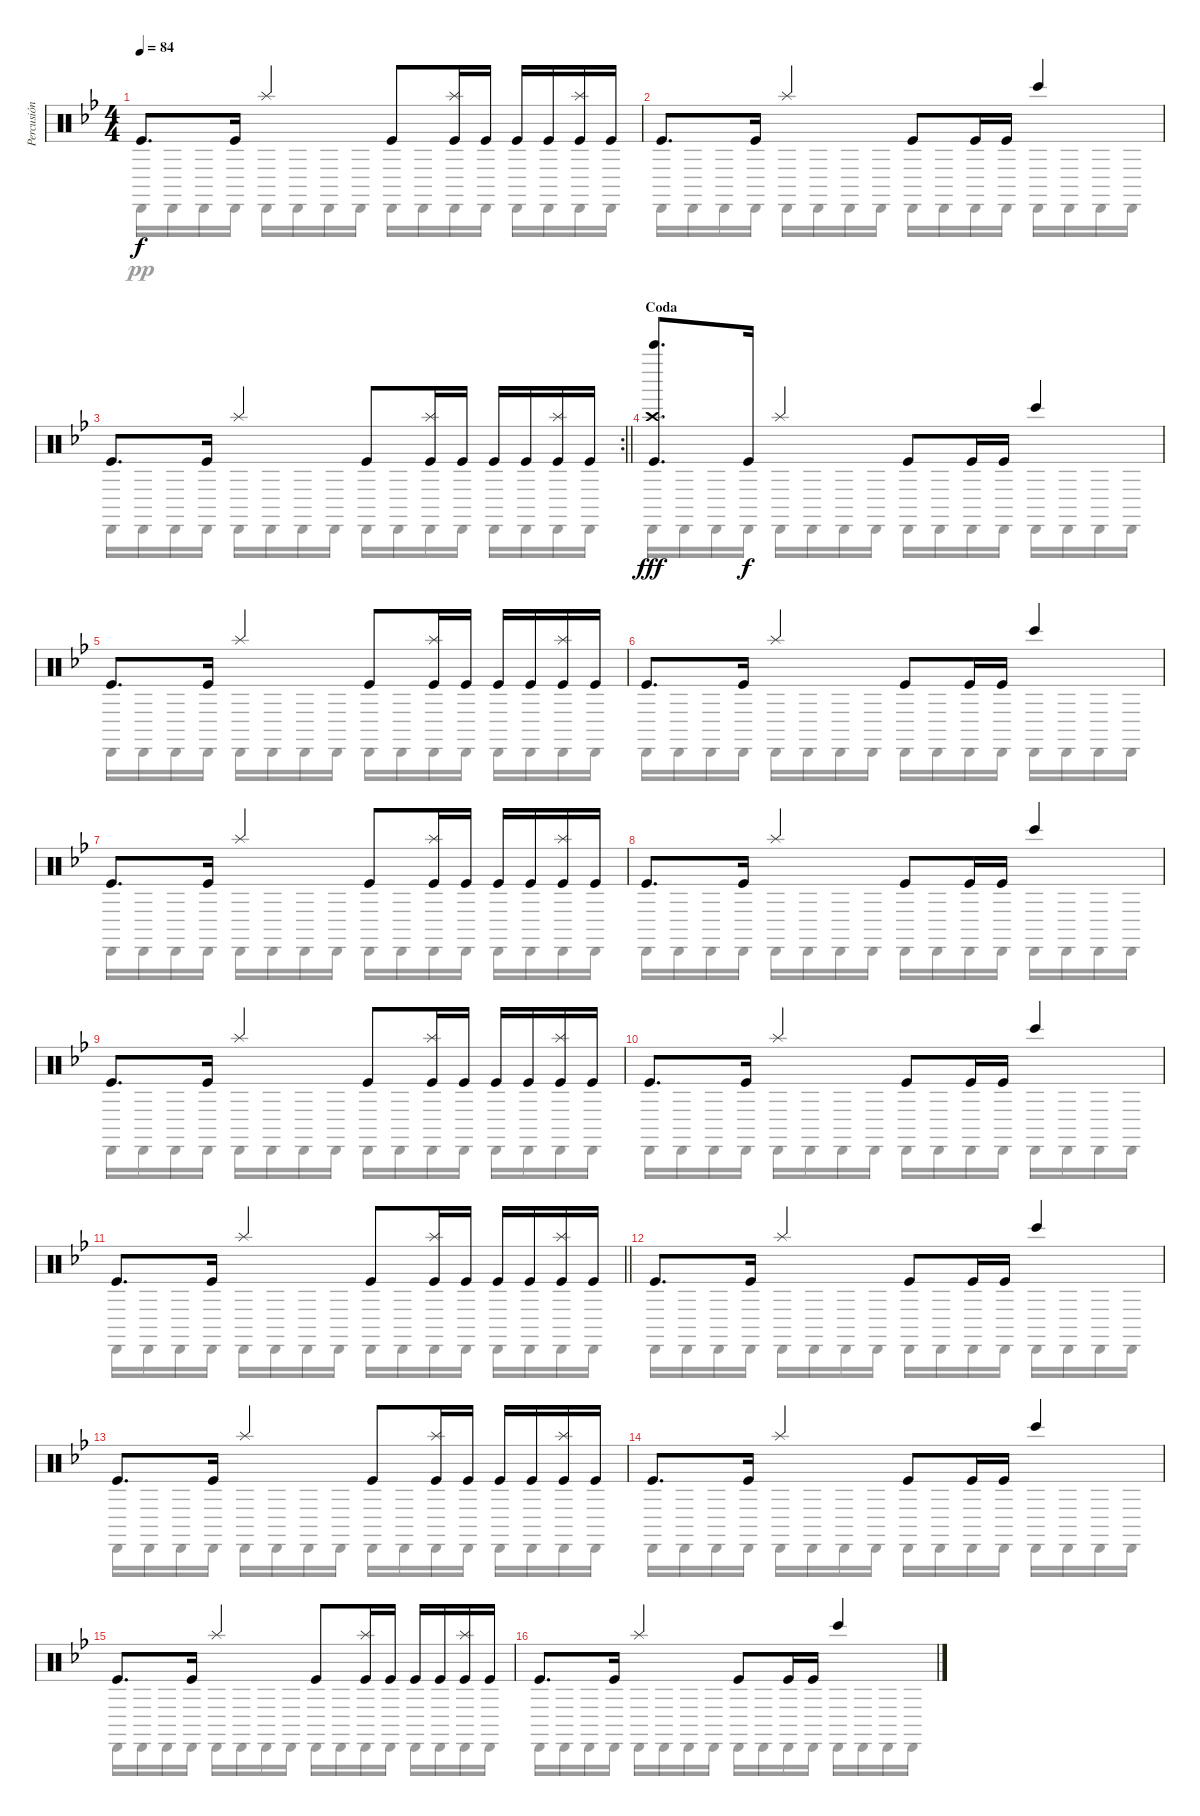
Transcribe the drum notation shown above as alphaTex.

\track ("Percusión" "Percusión") {instrument percussion}
\staff {score}
\articulation defaults
\voice
\ts (4 4)
\tempo 84
\clef neutral
\ks bb "Kick (hit)".8{d dy f} "Kick (hit)".16 "Splash (hit)".4 "Kick (hit)".8
("Splash (hit)" "Kick (hit)").16 "Kick (hit)".16 "Kick (hit)".16 "Kick (hit)".16 ("Splash (hit)" "Kick (hit)").16 "Kick (hit)".16 |
"Kick (hit)".8{d} "Kick (hit)".16 "Splash (hit)".4 "Kick (hit)".8 "Kick (hit)".16 "Kick (hit)".16 "Bongo High (hit)".4 |
\rc 2
\barLineRight lightlight "Kick (hit)".8{d} "Kick (hit)".16 "Splash (hit)".4 "Kick (hit)".8
("Splash (hit)" "Kick (hit)").16 "Kick (hit)".16 "Kick (hit)".16 "Kick (hit)".16 ("Splash (hit)" "Kick (hit)").16 "Kick (hit)".16 |
\section ("" "Coda")
("Bell Tree (hit)" "Crash high (hit)" "Kick (hit)").8{d dy fff} "Kick (hit)".16{dy f} "Splash (hit)".4 "Kick (hit)".8 "Kick (hit)".16 "Kick (hit)".16 "Bongo High (hit)".4 |
"Kick (hit)".8{d} "Kick (hit)".16 "Splash (hit)".4 "Kick (hit)".8 ("Splash (hit)" "Kick (hit)").16 "Kick (hit)".16 "Kick (hit)".16 "Kick (hit)".16 ("Splash (hit)" "Kick (hit)").16 "Kick (hit)".16 |
"Kick (hit)".8{d} "Kick (hit)".16 "Splash (hit)".4 "Kick (hit)".8 "Kick (hit)".16 "Kick (hit)".16 "Bongo High (hit)".4 |
"Kick (hit)".8{d} "Kick (hit)".16 "Splash (hit)".4 "Kick (hit)".8 ("Splash (hit)" "Kick (hit)").16 "Kick (hit)".16 "Kick (hit)".16 "Kick (hit)".16 ("Splash (hit)" "Kick (hit)").16 "Kick (hit)".16 |
"Kick (hit)".8{d} "Kick (hit)".16 "Splash (hit)".4 "Kick (hit)".8 "Kick (hit)".16 "Kick (hit)".16 "Bongo High (hit)".4 |
"Kick (hit)".8{d} "Kick (hit)".16 "Splash (hit)".4 "Kick (hit)".8 ("Splash (hit)" "Kick (hit)").16 "Kick (hit)".16 "Kick (hit)".16 "Kick (hit)".16 ("Splash (hit)" "Kick (hit)").16 "Kick (hit)".16 |
"Kick (hit)".8{d} "Kick (hit)".16 "Splash (hit)".4 "Kick (hit)".8 "Kick (hit)".16 "Kick (hit)".16 "Bongo High (hit)".4 |
\barLineRight lightlight "Kick (hit)".8{d} "Kick (hit)".16 "Splash (hit)".4 "Kick (hit)".8
("Splash (hit)" "Kick (hit)").16 "Kick (hit)".16 "Kick (hit)".16 "Kick (hit)".16 ("Splash (hit)" "Kick (hit)").16 "Kick (hit)".16 |
"Kick (hit)".8{d} "Kick (hit)".16 "Splash (hit)".4 "Kick (hit)".8 "Kick (hit)".16 "Kick (hit)".16 "Bongo High (hit)".4 |
"Kick (hit)".8{d} "Kick (hit)".16 "Splash (hit)".4 "Kick (hit)".8 ("Splash (hit)" "Kick (hit)").16 "Kick (hit)".16 "Kick (hit)".16 "Kick (hit)".16 ("Splash (hit)" "Kick (hit)").16 "Kick (hit)".16 |
"Kick (hit)".8{d} "Kick (hit)".16 "Splash (hit)".4 "Kick (hit)".8 "Kick (hit)".16 "Kick (hit)".16 "Bongo High (hit)".4 |
"Kick (hit)".8{d} "Kick (hit)".16 "Splash (hit)".4 "Kick (hit)".8 ("Splash (hit)" "Kick (hit)").16 "Kick (hit)".16 "Kick (hit)".16 "Kick (hit)".16 ("Splash (hit)" "Kick (hit)").16 "Kick (hit)".16 |
"Kick (hit)".8{d} "Kick (hit)".16 "Splash (hit)".4 "Kick (hit)".8 "Kick (hit)".16 "Kick (hit)".16 "Bongo High (hit)".4
\voice
\clef neutral
\ottava regular
\simile none
\ks bb "Cabasa (hit)".16{dy pp} "Cabasa (hit)".16 "Cabasa (hit)".16 "Cabasa (hit)".16 "Cabasa (hit)".16 "Cabasa (hit)".16 "Cabasa (hit)".16 "Cabasa (hit)".16 "Cabasa (hit)".16 "Cabasa (hit)".16 "Cabasa (hit)".16 "Cabasa (hit)".16 "Cabasa (hit)".16 "Cabasa (hit)".16 "Cabasa (hit)".16 "Cabasa (hit)".16
|
"Cabasa (hit)".16 "Cabasa (hit)".16 "Cabasa (hit)".16 "Cabasa (hit)".16 "Cabasa (hit)".16 "Cabasa (hit)".16 "Cabasa (hit)".16 "Cabasa (hit)".16 "Cabasa (hit)".16 "Cabasa (hit)".16 "Cabasa (hit)".16 "Cabasa (hit)".16 "Cabasa (hit)".16 "Cabasa (hit)".16 "Cabasa (hit)".16 "Cabasa (hit)".16 |
\barLineRight lightlight "Cabasa (hit)".16 "Cabasa (hit)".16 "Cabasa (hit)".16 "Cabasa (hit)".16 "Cabasa (hit)".16 "Cabasa (hit)".16 "Cabasa (hit)".16 "Cabasa (hit)".16 "Cabasa (hit)".16 "Cabasa (hit)".16 "Cabasa (hit)".16 "Cabasa (hit)".16 "Cabasa (hit)".16 "Cabasa (hit)".16 "Cabasa (hit)".16 "Cabasa (hit)".16
|
"Cabasa (hit)".16 "Cabasa (hit)".16 "Cabasa (hit)".16 "Cabasa (hit)".16 "Cabasa (hit)".16 "Cabasa (hit)".16 "Cabasa (hit)".16 "Cabasa (hit)".16 "Cabasa (hit)".16 "Cabasa (hit)".16 "Cabasa (hit)".16 "Cabasa (hit)".16 "Cabasa (hit)".16 "Cabasa (hit)".16 "Cabasa (hit)".16 "Cabasa (hit)".16 |
"Cabasa (hit)".16 "Cabasa (hit)".16 "Cabasa (hit)".16 "Cabasa (hit)".16 "Cabasa (hit)".16 "Cabasa (hit)".16 "Cabasa (hit)".16 "Cabasa (hit)".16 "Cabasa (hit)".16 "Cabasa (hit)".16 "Cabasa (hit)".16 "Cabasa (hit)".16 "Cabasa (hit)".16 "Cabasa (hit)".16 "Cabasa (hit)".16 "Cabasa (hit)".16 |
"Cabasa (hit)".16 "Cabasa (hit)".16 "Cabasa (hit)".16 "Cabasa (hit)".16 "Cabasa (hit)".16 "Cabasa (hit)".16 "Cabasa (hit)".16 "Cabasa (hit)".16 "Cabasa (hit)".16 "Cabasa (hit)".16 "Cabasa (hit)".16 "Cabasa (hit)".16 "Cabasa (hit)".16 "Cabasa (hit)".16 "Cabasa (hit)".16 "Cabasa (hit)".16 |
"Cabasa (hit)".16 "Cabasa (hit)".16 "Cabasa (hit)".16 "Cabasa (hit)".16 "Cabasa (hit)".16 "Cabasa (hit)".16 "Cabasa (hit)".16 "Cabasa (hit)".16 "Cabasa (hit)".16 "Cabasa (hit)".16 "Cabasa (hit)".16 "Cabasa (hit)".16 "Cabasa (hit)".16 "Cabasa (hit)".16 "Cabasa (hit)".16 "Cabasa (hit)".16 |
"Cabasa (hit)".16 "Cabasa (hit)".16 "Cabasa (hit)".16 "Cabasa (hit)".16 "Cabasa (hit)".16 "Cabasa (hit)".16 "Cabasa (hit)".16 "Cabasa (hit)".16 "Cabasa (hit)".16 "Cabasa (hit)".16 "Cabasa (hit)".16 "Cabasa (hit)".16 "Cabasa (hit)".16 "Cabasa (hit)".16 "Cabasa (hit)".16 "Cabasa (hit)".16 |
"Cabasa (hit)".16 "Cabasa (hit)".16 "Cabasa (hit)".16 "Cabasa (hit)".16 "Cabasa (hit)".16 "Cabasa (hit)".16 "Cabasa (hit)".16 "Cabasa (hit)".16 "Cabasa (hit)".16 "Cabasa (hit)".16 "Cabasa (hit)".16 "Cabasa (hit)".16 "Cabasa (hit)".16 "Cabasa (hit)".16 "Cabasa (hit)".16 "Cabasa (hit)".16 |
"Cabasa (hit)".16 "Cabasa (hit)".16 "Cabasa (hit)".16 "Cabasa (hit)".16 "Cabasa (hit)".16 "Cabasa (hit)".16 "Cabasa (hit)".16 "Cabasa (hit)".16 "Cabasa (hit)".16 "Cabasa (hit)".16 "Cabasa (hit)".16 "Cabasa (hit)".16 "Cabasa (hit)".16 "Cabasa (hit)".16 "Cabasa (hit)".16 "Cabasa (hit)".16 |
\barLineRight lightlight "Cabasa (hit)".16 "Cabasa (hit)".16 "Cabasa (hit)".16 "Cabasa (hit)".16 "Cabasa (hit)".16 "Cabasa (hit)".16 "Cabasa (hit)".16 "Cabasa (hit)".16 "Cabasa (hit)".16 "Cabasa (hit)".16 "Cabasa (hit)".16 "Cabasa (hit)".16 "Cabasa (hit)".16 "Cabasa (hit)".16 "Cabasa (hit)".16 "Cabasa (hit)".16
|
"Cabasa (hit)".16 "Cabasa (hit)".16 "Cabasa (hit)".16 "Cabasa (hit)".16 "Cabasa (hit)".16 "Cabasa (hit)".16 "Cabasa (hit)".16 "Cabasa (hit)".16 "Cabasa (hit)".16 "Cabasa (hit)".16 "Cabasa (hit)".16 "Cabasa (hit)".16 "Cabasa (hit)".16 "Cabasa (hit)".16 "Cabasa (hit)".16 "Cabasa (hit)".16 |
"Cabasa (hit)".16 "Cabasa (hit)".16 "Cabasa (hit)".16 "Cabasa (hit)".16 "Cabasa (hit)".16 "Cabasa (hit)".16 "Cabasa (hit)".16 "Cabasa (hit)".16 "Cabasa (hit)".16 "Cabasa (hit)".16 "Cabasa (hit)".16 "Cabasa (hit)".16 "Cabasa (hit)".16 "Cabasa (hit)".16 "Cabasa (hit)".16 "Cabasa (hit)".16 |
"Cabasa (hit)".16 "Cabasa (hit)".16 "Cabasa (hit)".16 "Cabasa (hit)".16 "Cabasa (hit)".16 "Cabasa (hit)".16 "Cabasa (hit)".16 "Cabasa (hit)".16 "Cabasa (hit)".16 "Cabasa (hit)".16 "Cabasa (hit)".16 "Cabasa (hit)".16 "Cabasa (hit)".16 "Cabasa (hit)".16 "Cabasa (hit)".16 "Cabasa (hit)".16 |
"Cabasa (hit)".16 "Cabasa (hit)".16 "Cabasa (hit)".16 "Cabasa (hit)".16 "Cabasa (hit)".16 "Cabasa (hit)".16 "Cabasa (hit)".16 "Cabasa (hit)".16 "Cabasa (hit)".16 "Cabasa (hit)".16 "Cabasa (hit)".16 "Cabasa (hit)".16 "Cabasa (hit)".16 "Cabasa (hit)".16 "Cabasa (hit)".16 "Cabasa (hit)".16 |
"Cabasa (hit)".16 "Cabasa (hit)".16 "Cabasa (hit)".16 "Cabasa (hit)".16 "Cabasa (hit)".16 "Cabasa (hit)".16 "Cabasa (hit)".16 "Cabasa (hit)".16 "Cabasa (hit)".16 "Cabasa (hit)".16 "Cabasa (hit)".16 "Cabasa (hit)".16 "Cabasa (hit)".16 "Cabasa (hit)".16 "Cabasa (hit)".16 "Cabasa (hit)".16
